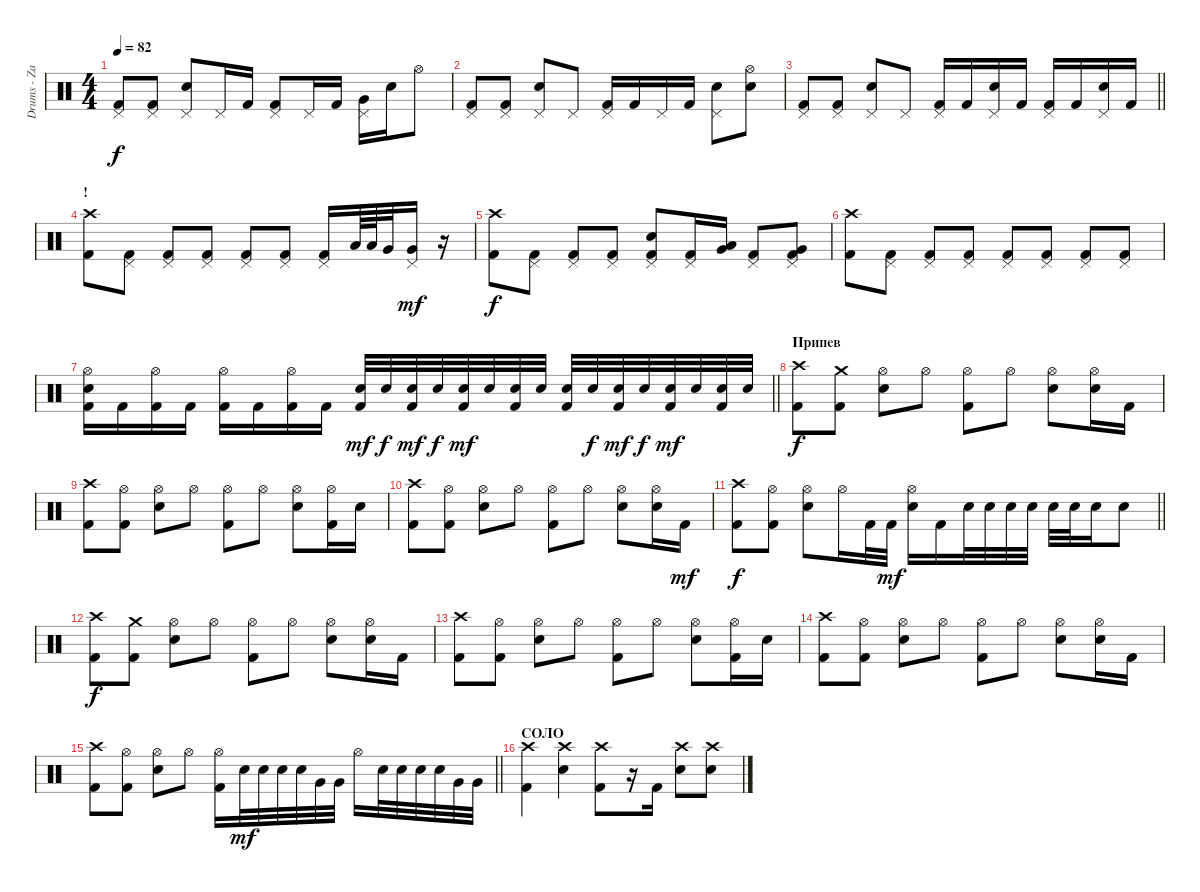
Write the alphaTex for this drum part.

\track ("Drums - Zac Farro" "Drums - Za") {instrument percussion}
\staff {score}
\articulation defaults
\ts (4 4)
\tempo 82
\clef neutral
\ks c
("Pedal Hi-Hat (hit)" "Kick (hit) 2").8{dy f} ("Pedal Hi-Hat (hit)" "Kick (hit) 2").8 ("Pedal Hi-Hat (hit)" "Snare (hit) 2").8 "Pedal Hi-Hat (hit)".16 "Kick (hit) 2".16 ("Pedal Hi-Hat (hit)" "Kick (hit) 2").8 "Pedal Hi-Hat (hit)".16 "Kick (hit) 2".16 ("Pedal Hi-Hat (hit)" "Very Low Tom (hit)").16 "Snare (hit) 2".16 "Hi-Hat (open)".8 |
("Pedal Hi-Hat (hit)" "Kick (hit) 2").8 ("Pedal Hi-Hat (hit)" "Kick (hit) 2").8 ("Pedal Hi-Hat (hit)" "Snare (hit) 2").8 "Pedal Hi-Hat (hit)".8 ("Pedal Hi-Hat (hit)" "Kick (hit) 2").16 "Kick (hit) 2".16 "Pedal Hi-Hat (hit)".16 "Kick (hit) 2".16 ("Pedal Hi-Hat (hit)" "Snare (hit) 2").8 ("Hi-Hat (open)" "Snare (hit) 2").8 |
\barLineRight lightlight
("Pedal Hi-Hat (hit)" "Kick (hit) 2").8 ("Pedal Hi-Hat (hit)" "Kick (hit) 2").8 ("Pedal Hi-Hat (hit)" "Snare (hit) 2").8 "Pedal Hi-Hat (hit)".8 ("Pedal Hi-Hat (hit)" "Kick (hit) 2").16 "Kick (hit) 2".16 ("Pedal Hi-Hat (hit)" "Snare (hit) 2").16 "Kick (hit) 2".16 ("Pedal Hi-Hat (hit)" "Kick (hit) 2").16 "Kick (hit) 2".16 ("Pedal Hi-Hat (hit)" "Snare (hit) 2").16 "Kick (hit) 2".16 |
\section ("" "!")
("Crash high (hit)" "Kick (hit) 2").8 ("Pedal Hi-Hat (hit)" "Kick (hit) 2").8 ("Pedal Hi-Hat (hit)" "Kick (hit) 2").8 ("Pedal Hi-Hat (hit)" "Kick (hit) 2").8 ("Pedal Hi-Hat (hit)" "Kick (hit) 2").8 ("Pedal Hi-Hat (hit)" "Kick (hit) 2").8 ("Pedal Hi-Hat (hit)" "Kick (hit) 2").16 "Low Tom (hit)".64 "Low Tom (hit)".64 "Very Low Tom (hit)".32 ("Pedal Hi-Hat (hit)" "Very Low Tom (hit)").16{dy mf} r.16 |
("Crash high (hit)" "Kick (hit) 2").8{dy f} ("Pedal Hi-Hat (hit)" "Kick (hit) 2").8 ("Pedal Hi-Hat (hit)" "Kick (hit) 2").8 ("Pedal Hi-Hat (hit)" "Kick (hit) 2").8 ("Pedal Hi-Hat (hit)" "Kick (hit) 2" "Snare (hit) 2").8 ("Pedal Hi-Hat (hit)" "Kick (hit) 2").16 ("Low Tom (hit)" "Very Low Tom (hit)").16 ("Pedal Hi-Hat (hit)" "Kick (hit) 2").8 ("Pedal Hi-Hat (hit)" "Kick (hit) 2" "Very Low Tom (hit)").8 |
("Crash high (hit)" "Kick (hit) 2").8 ("Pedal Hi-Hat (hit)" "Kick (hit) 2").8 ("Pedal Hi-Hat (hit)" "Kick (hit) 2").8 ("Pedal Hi-Hat (hit)" "Kick (hit) 2").8 ("Pedal Hi-Hat (hit)" "Kick (hit) 2").8 ("Pedal Hi-Hat (hit)" "Kick (hit) 2").8 ("Pedal Hi-Hat (hit)" "Kick (hit) 2").8 ("Pedal Hi-Hat (hit)" "Kick (hit) 2").8 |
\barLineRight lightlight
("Hi-Hat (open)" "Kick (hit) 2" "Snare (hit) 2").16 "Kick (hit) 2".16 ("Hi-Hat (open)" "Kick (hit) 2").16 "Kick (hit) 2".16 ("Hi-Hat (open)" "Kick (hit) 2").16 "Kick (hit) 2".16 ("Hi-Hat (open)" "Kick (hit) 2").16 "Kick (hit) 2".16 ("Kick (hit) 2" "Snare (hit) 2").32{dy mf} "Snare (hit) 2".32{dy f} ("Kick (hit) 2" "Snare (hit) 2").32{dy mf} "Snare (hit) 2".32{dy f} ("Kick (hit) 2" "Snare (hit) 2").32{dy mf} "Snare (hit) 2".32 ("Kick (hit) 2" "Snare (hit) 2").32 "Snare (hit) 2".32 ("Kick (hit) 2" "Snare (hit) 2").32 "Snare (hit) 2".32{dy f} ("Kick (hit) 2" "Snare (hit) 2").32{dy mf} "Snare (hit) 2".32{dy f} ("Kick (hit) 2" "Snare (hit) 2").32{dy mf} "Snare (hit) 2".32 ("Kick (hit) 2" "Snare (hit) 2").32 "Snare (hit) 2".32 |
\section ("" "Припев")
("Crash high (hit)" "Kick (hit) 2").8{dy f} ("Crash medium (hit)" "Kick (hit) 2").8 ("Hi-Hat (open)" "Snare (hit) 2").8 "Hi-Hat (open)".8 ("Hi-Hat (open)" "Kick (hit) 2").8 "Hi-Hat (open)".8 ("Hi-Hat (open)" "Snare (hit) 2").8 ("Hi-Hat (open)" "Snare (hit) 2").16 "Kick (hit) 2".16 |
("Crash high (hit)" "Kick (hit) 2").8 ("Hi-Hat (open)" "Kick (hit) 2").8 ("Hi-Hat (open)" "Snare (hit) 2").8 "Hi-Hat (open)".8 ("Hi-Hat (open)" "Kick (hit) 2").8 "Hi-Hat (open)".8 ("Hi-Hat (open)" "Snare (hit) 2").8 ("Hi-Hat (open)" "Kick (hit) 2").16 "Snare (hit) 2".16 |
("Crash high (hit)" "Kick (hit) 2").8 ("Hi-Hat (open)" "Kick (hit) 2").8 ("Hi-Hat (open)" "Snare (hit) 2").8 "Hi-Hat (open)".8 ("Hi-Hat (open)" "Kick (hit) 2").8 "Hi-Hat (open)".8 ("Hi-Hat (open)" "Snare (hit) 2").8 ("Hi-Hat (open)" "Snare (hit) 2").16 "Kick (hit) 2".16{dy mf} |
\barLineRight lightlight
("Crash high (hit)" "Kick (hit) 2").8{dy f} ("Hi-Hat (open)" "Kick (hit) 2").8 ("Hi-Hat (open)" "Snare (hit) 2").8 "Hi-Hat (open)".16 "Kick (hit) 2".32 "Kick (hit) 2".32{dy mf} ("Hi-Hat (open)" "Snare (hit) 2").16 "Kick (hit) 2".16 "Snare (hit) 2".32 "Snare (hit) 2".32 "Snare (hit) 2".32 "Snare (hit) 2".32 "Snare (hit) 2".32 "Snare (hit) 2".32 "Snare (hit) 2".16 "Snare (hit) 2".8 |
("Crash high (hit)" "Kick (hit) 2").8{dy f} ("Crash medium (hit)" "Kick (hit) 2").8 ("Hi-Hat (open)" "Snare (hit) 2").8 "Hi-Hat (open)".8 ("Hi-Hat (open)" "Kick (hit) 2").8 "Hi-Hat (open)".8 ("Hi-Hat (open)" "Snare (hit) 2").8 ("Hi-Hat (open)" "Snare (hit) 2").16 "Kick (hit) 2".16 |
("Crash high (hit)" "Kick (hit) 2").8 ("Hi-Hat (open)" "Kick (hit) 2").8 ("Hi-Hat (open)" "Snare (hit) 2").8 "Hi-Hat (open)".8 ("Hi-Hat (open)" "Kick (hit) 2").8 "Hi-Hat (open)".8 ("Hi-Hat (open)" "Snare (hit) 2").8 ("Hi-Hat (open)" "Kick (hit) 2").16 "Snare (hit) 2".16 |
("Crash high (hit)" "Kick (hit) 2").8 ("Hi-Hat (open)" "Kick (hit) 2").8 ("Hi-Hat (open)" "Snare (hit) 2").8 "Hi-Hat (open)".8 ("Hi-Hat (open)" "Kick (hit) 2").8 "Hi-Hat (open)".8 ("Hi-Hat (open)" "Snare (hit) 2").8 ("Hi-Hat (open)" "Snare (hit) 2").16 "Kick (hit) 2".16 |
\barLineRight lightlight
("Crash high (hit)" "Kick (hit) 2").8 ("Hi-Hat (open)" "Kick (hit) 2").8 ("Hi-Hat (open)" "Snare (hit) 2").8 "Hi-Hat (open)".8 ("Hi-Hat (open)" "Kick (hit) 2").16 "Snare (hit) 2".32{dy mf} "Snare (hit) 2".32 "Snare (hit) 2".32 "Snare (hit) 2".32 "Very Low Tom (hit)".32 "Very Low Tom (hit)".32 "Hi-Hat (open)".16 "Snare (hit) 2".32 "Snare (hit) 2".32 "Snare (hit) 2".32 "Snare (hit) 2".32 "Very Low Tom (hit)".32 "Very Low Tom (hit)".32 |
\section ("" "СОЛО")
("Crash high (hit)" "Kick (hit) 2").4 ("Crash high (hit)" "Snare (hit) 2").4 ("Crash high (hit)" "Kick (hit) 2").8 r.16 "Kick (hit) 2".16 ("Crash high (hit)" "Snare (hit) 2").8 ("Crash high (hit)" "Snare (hit) 2").8
